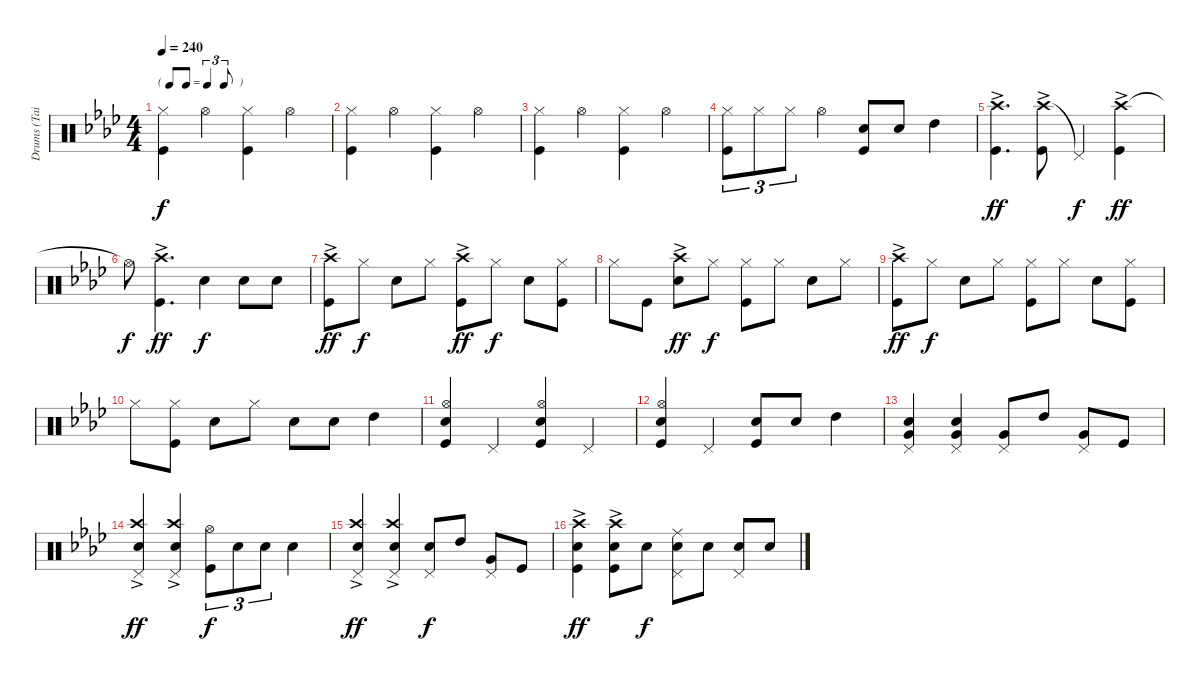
\track ("Drums (Tainaka Ritsu)" "Drums (Tai") {instrument percussion}
\staff {score}
\articulation defaults
\ts (4 4)
\tf triplet8th
\tempo 240
\clef neutral
\ks ab
("Hi-Hat (closed)" "Kick (hit)").4{dy f} "Hi-Hat (open)".4 ("Hi-Hat (closed)" "Kick (hit)").4 "Hi-Hat (open)".4 |
("Hi-Hat (closed)" "Kick (hit)").4 "Hi-Hat (open)".4 ("Hi-Hat (closed)" "Kick (hit)").4 "Hi-Hat (open)".4 |
("Hi-Hat (closed)" "Kick (hit)").4 "Hi-Hat (open)".4 ("Hi-Hat (closed)" "Kick (hit)").4 "Hi-Hat (open)".4 |
("Kick (hit)" "Hi-Hat (closed)").8{tu (3 2)} "Hi-Hat (closed)".8{tu (3 2)} "Hi-Hat (closed)".8{tu (3 2)} "Hi-Hat (open)".4 ("Snare (hit) 2" "Kick (hit)").8 "Snare (hit) 2".8 "High Tom (hit)".4 |
("Crash high (hit)"{ac} "Kick (hit)").4{d dy ff} ("Crash high (hit)"{ac} "Kick (hit)").8 "Pedal Hi-Hat (hit)"{t}.4{dy f} ("Crash high (hit)"{ac} "Kick (hit)").4{dy ff} |
"Hi-Hat (open)"{t}.8{dy f} ("Crash high (hit)"{ac} "Kick (hit)").4{d dy ff} "Snare (hit) 2".4{dy f} "Snare (hit) 2".8 "Snare (hit) 2".8 |
("Crash high (hit)"{ac} "Kick (hit)").8{dy ff} "Hi-Hat (closed)".8{dy f} "Snare (hit) 2".8 "Hi-Hat (closed)".8 ("Crash high (hit)"{ac} "Kick (hit)").8{dy ff} "Hi-Hat (closed)".8{dy f} "Snare (hit) 2".8 ("Hi-Hat (closed)" "Kick (hit)").8 |
"Hi-Hat (closed)".8 "Kick (hit)".8 ("Crash high (hit)"{ac} "Snare (hit) 2").8{dy ff} "Hi-Hat (closed)".8{dy f} ("Hi-Hat (closed)" "Kick (hit)").8 "Hi-Hat (closed)".8 "Snare (hit) 2".8 "Hi-Hat (closed)".8 |
("Crash high (hit)"{ac} "Kick (hit)").8{dy ff} "Hi-Hat (closed)".8{dy f} "Snare (hit) 2".8 "Hi-Hat (closed)".8 ("Hi-Hat (closed)" "Kick (hit)").8 "Hi-Hat (closed)".8 "Snare (hit) 2".8 ("Hi-Hat (closed)" "Kick (hit)").8 |
"Hi-Hat (closed)".8 ("Hi-Hat (closed)" "Kick (hit)").8 "Snare (hit) 2".8 "Hi-Hat (closed)".8 "Snare (hit) 2".8 "Snare (hit) 2".8 "High Tom (hit)".4 |
("Hi-Hat (open)" "Snare (hit) 2" "Kick (hit)").4 "Pedal Hi-Hat (hit)".4 ("Hi-Hat (open)" "Snare (hit) 2" "Kick (hit)").4 "Pedal Hi-Hat (hit)".4 |
("Hi-Hat (open)" "Snare (hit) 2" "Kick (hit)").4 "Pedal Hi-Hat (hit)".4 ("Kick (hit)" "Snare (hit) 2").8 "Snare (hit) 2".8 "High Tom (hit)".4 |
("Snare (hit) 2" "Very Low Tom (hit)" "Pedal Hi-Hat (hit)").4 ("Snare (hit) 2" "Very Low Tom (hit)" "Pedal Hi-Hat (hit)").4 ("Very Low Tom (hit)" "Pedal Hi-Hat (hit)").8 "High Tom (hit)".8 ("Very Low Tom (hit)" "Pedal Hi-Hat (hit)").8 "Kick (hit)".8 |
("Crash high (hit)"{ac} "Snare (hit) 2" "Pedal Hi-Hat (hit)").4{dy ff} ("Crash high (hit)"{ac} "Snare (hit) 2" "Pedal Hi-Hat (hit)").4 ("Hi-Hat (open)" "Kick (hit)").8{tu (3 2) dy f} "Snare (hit) 2".8{tu (3 2)} "Snare (hit) 2".8{tu (3 2)} "Snare (hit) 2".4 |
("Crash high (hit)"{ac} "Snare (hit) 2" "Pedal Hi-Hat (hit)").4{dy ff} ("Crash high (hit)"{ac} "Snare (hit) 2" "Pedal Hi-Hat (hit)").4 ("Snare (hit) 2" "Pedal Hi-Hat (hit)").8{dy f} "High Tom (hit)".8 ("Very Low Tom (hit)" "Pedal Hi-Hat (hit)").8 "Kick (hit)".8 |
("Crash high (hit)"{ac} "Snare (hit) 2" "Kick (hit)").4{dy ff} ("Crash high (hit)"{ac} "Snare (hit) 2" "Kick (hit)").8 "Snare (hit) 2".8{dy f} ("Ride (middle)" "Snare (hit) 2" "Pedal Hi-Hat (hit)").8 "Snare (hit) 2".8 ("Snare (hit) 2" "Pedal Hi-Hat (hit)").8 "Snare (hit) 2".8
